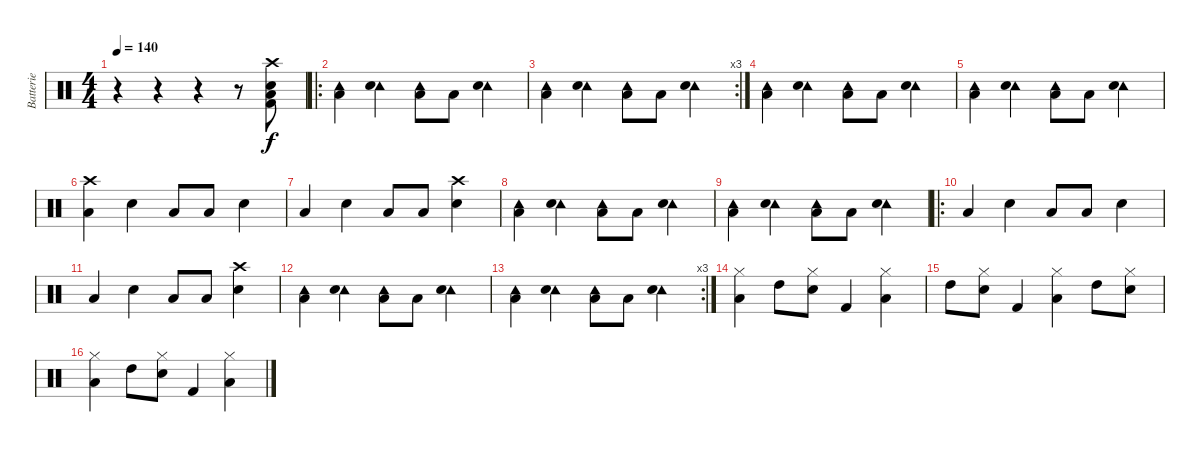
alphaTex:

\track ("Batterie" "Batterie") {instrument percussion}
\staff {score}
\articulation defaults
\ts (4 4)
\tempo 140
\clef neutral
\ks c
r.4{dy f} r.4 r.4 r.8 ("Crash high (hit)" "Electric Snare (hit)" "Kick (hit) 2" "Low Floor Tom (hit)").8 |
\ro
("Tambourine (hit)" "Low Floor Tom (hit)").4 ("Tambourine (hit)" "Electric Snare (hit)").4 ("Tambourine (hit)" "Low Floor Tom (hit)").8 "Low Floor Tom (hit)".8 ("Tambourine (hit)" "Electric Snare (hit)").4 |
\rc 3
("Tambourine (hit)" "Low Floor Tom (hit)").4 ("Tambourine (hit)" "Electric Snare (hit)").4 ("Tambourine (hit)" "Low Floor Tom (hit)").8 "Low Floor Tom (hit)".8 ("Tambourine (hit)" "Electric Snare (hit)").4 |
("Tambourine (hit)" "Low Floor Tom (hit)").4 ("Tambourine (hit)" "Electric Snare (hit)").4 ("Tambourine (hit)" "Low Floor Tom (hit)").8 "Low Floor Tom (hit)".8 ("Tambourine (hit)" "Electric Snare (hit)").4 |
("Tambourine (hit)" "Low Floor Tom (hit)").4 ("Tambourine (hit)" "Electric Snare (hit)").4 ("Tambourine (hit)" "Low Floor Tom (hit)").8 "Low Floor Tom (hit)".8 ("Tambourine (hit)" "Electric Snare (hit)").4 |
("Crash high (hit)" "Low Floor Tom (hit)").4 "Electric Snare (hit)".4 "Low Floor Tom (hit)".8 "Low Floor Tom (hit)".8 "Electric Snare (hit)".4 |
"Low Floor Tom (hit)".4 "Electric Snare (hit)".4 "Low Floor Tom (hit)".8 "Low Floor Tom (hit)".8 ("Crash high (hit)" "Electric Snare (hit)").4 |
("Tambourine (hit)" "Low Floor Tom (hit)").4 ("Tambourine (hit)" "Electric Snare (hit)").4 ("Tambourine (hit)" "Low Floor Tom (hit)").8 "Low Floor Tom (hit)".8 ("Tambourine (hit)" "Electric Snare (hit)").4 |
("Tambourine (hit)" "Low Floor Tom (hit)").4 ("Tambourine (hit)" "Electric Snare (hit)").4 ("Tambourine (hit)" "Low Floor Tom (hit)").8 "Low Floor Tom (hit)".8 ("Tambourine (hit)" "Electric Snare (hit)").4 |
\ro "Low Floor Tom (hit)".4 "Electric Snare (hit)".4 "Low Floor Tom (hit)".8 "Low Floor Tom (hit)".8 "Electric Snare (hit)".4
|
"Low Floor Tom (hit)".4 "Electric Snare (hit)".4 "Low Floor Tom (hit)".8 "Low Floor Tom (hit)".8 ("Crash high (hit)" "Electric Snare (hit)").4 |
("Tambourine (hit)" "Low Floor Tom (hit)").4 ("Tambourine (hit)" "Electric Snare (hit)").4 ("Tambourine (hit)" "Low Floor Tom (hit)").8 "Low Floor Tom (hit)".8 ("Tambourine (hit)" "Electric Snare (hit)").4 |
\rc 3
("Tambourine (hit)" "Low Floor Tom (hit)").4 ("Tambourine (hit)" "Electric Snare (hit)").4 ("Tambourine (hit)" "Low Floor Tom (hit)").8 "Low Floor Tom (hit)".8 ("Tambourine (hit)" "Electric Snare (hit)").4 |
("Hi-Hat (closed)" "Low Floor Tom (hit)").4 "High Tom (hit)".8 ("Hi-Hat (closed)" "Snare (hit) 2").8 "Kick (hit) 2".4 ("Hi-Hat (closed)" "Low Floor Tom (hit)").4 |
"High Tom (hit)".8 ("Hi-Hat (closed)" "Snare (hit) 2").8 "Kick (hit) 2".4 ("Hi-Hat (closed)" "Low Floor Tom (hit)").4 "High Tom (hit)".8 ("Hi-Hat (closed)" "Snare (hit) 2").8 |
("Hi-Hat (closed)" "Low Floor Tom (hit)").4 "High Tom (hit)".8 ("Hi-Hat (closed)" "Snare (hit) 2").8 "Kick (hit) 2".4 ("Hi-Hat (closed)" "Low Floor Tom (hit)").4
